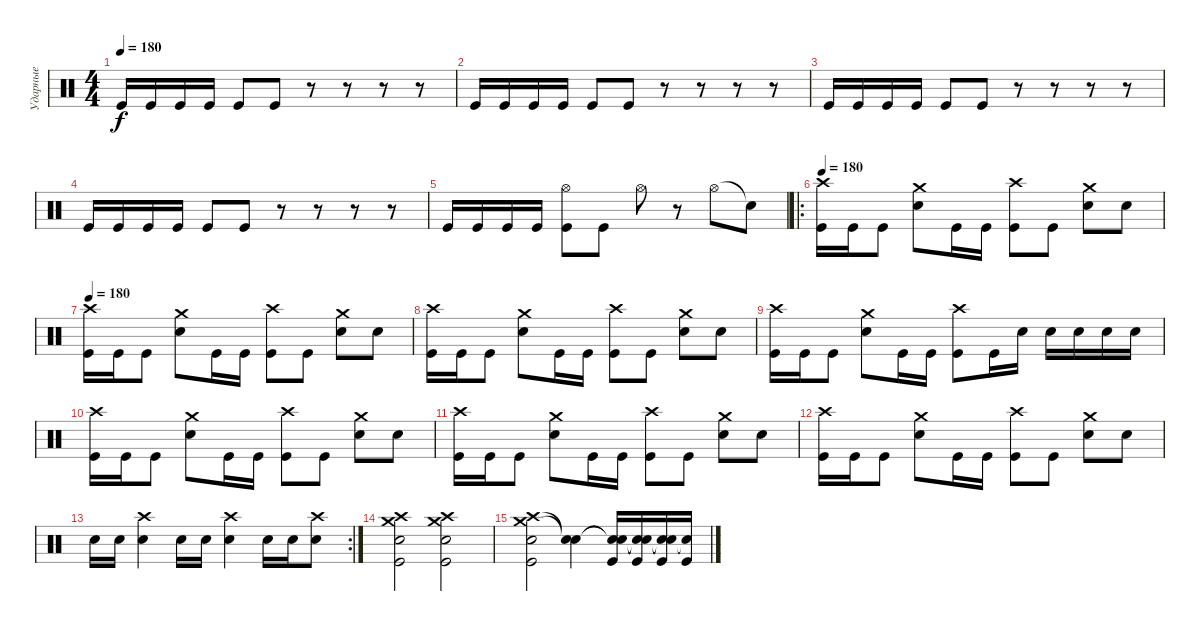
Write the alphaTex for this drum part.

\track ("Ударные" "Ударные") {instrument percussion}
\staff {score}
\articulation defaults
\ts (4 4)
\tempo 180
\clef neutral
\ks c "Kick (hit)".16{dy f} "Kick (hit)".16 "Kick (hit)".16 "Kick (hit)".16 "Kick (hit)".8 "Kick (hit)".8
r.8 r.8 r.8 r.8 |
"Kick (hit)".16 "Kick (hit)".16 "Kick (hit)".16 "Kick (hit)".16 "Kick (hit)".8 "Kick (hit)".8 r.8 r.8 r.8 r.8 |
"Kick (hit)".16 "Kick (hit)".16 "Kick (hit)".16 "Kick (hit)".16 "Kick (hit)".8 "Kick (hit)".8 r.8 r.8 r.8 r.8 |
"Kick (hit)".16 "Kick (hit)".16 "Kick (hit)".16 "Kick (hit)".16 "Kick (hit)".8 "Kick (hit)".8 r.8 r.8 r.8 r.8 |
"Kick (hit)".16 "Kick (hit)".16 "Kick (hit)".16 "Kick (hit)".16 ("Hi-Hat (open)" "Kick (hit)").8 "Kick (hit)".8 "Hi-Hat (open)".8 r.8 "Hi-Hat (open)".8 "Snare (hit)"{t}.8 |
\ro
\tempo 180
("Crash high (hit)" "Kick (hit)").16 "Kick (hit)".16 "Kick (hit)".8 ("Crash medium (hit)" "Snare (hit) 2").8 "Kick (hit)".16 "Kick (hit)".16 ("Crash high (hit)" "Kick (hit)").8 "Kick (hit)".8 ("Crash medium (hit)" "Snare (hit) 2").8 "Snare (hit) 2".8 |
\tempo 180
("Crash high (hit)" "Kick (hit)").16 "Kick (hit)".16 "Kick (hit)".8 ("Crash medium (hit)" "Snare (hit) 2").8 "Kick (hit)".16 "Kick (hit)".16 ("Crash high (hit)" "Kick (hit)").8 "Kick (hit)".8 ("Crash medium (hit)" "Snare (hit) 2").8 "Snare (hit) 2".8 |
("Crash high (hit)" "Kick (hit)").16 "Kick (hit)".16 "Kick (hit)".8 ("Crash medium (hit)" "Snare (hit) 2").8 "Kick (hit)".16 "Kick (hit)".16 ("Crash high (hit)" "Kick (hit)").8 "Kick (hit)".8 ("Crash medium (hit)" "Snare (hit) 2").8 "Snare (hit) 2".8 |
("Crash high (hit)" "Kick (hit)").16 "Kick (hit)".16 "Kick (hit)".8 ("Crash medium (hit)" "Snare (hit) 2").8 "Kick (hit)".16 "Kick (hit)".16 ("Crash high (hit)" "Kick (hit)").8 "Kick (hit)".16 "Snare (hit) 2".16 "Snare (hit) 2".16 "Snare (hit) 2".16 "Snare (hit) 2".16 "Snare (hit) 2".16 |
("Crash high (hit)" "Kick (hit)").16 "Kick (hit)".16 "Kick (hit)".8 ("Crash medium (hit)" "Snare (hit) 2").8 "Kick (hit)".16 "Kick (hit)".16 ("Crash high (hit)" "Kick (hit)").8 "Kick (hit)".8 ("Crash medium (hit)" "Snare (hit) 2").8 "Snare (hit) 2".8 |
("Crash high (hit)" "Kick (hit)").16 "Kick (hit)".16 "Kick (hit)".8 ("Crash medium (hit)" "Snare (hit) 2").8 "Kick (hit)".16 "Kick (hit)".16 ("Crash high (hit)" "Kick (hit)").8 "Kick (hit)".8 ("Crash medium (hit)" "Snare (hit) 2").8 "Snare (hit) 2".8 |
("Crash high (hit)" "Kick (hit)").16 "Kick (hit)".16 "Kick (hit)".8 ("Crash medium (hit)" "Snare (hit) 2").8 "Kick (hit)".16 "Kick (hit)".16 ("Crash high (hit)" "Kick (hit)").8 "Kick (hit)".8 ("Crash medium (hit)" "Snare (hit) 2").8 "Snare (hit) 2".8 |
\rc 2 "Snare (hit) 2".16 "Snare (hit) 2".16
("Crash high (hit)" "Snare (hit) 2").4 "Snare (hit) 2".16 "Snare (hit) 2".16 ("Crash high (hit)" "Snare (hit) 2").4 "Snare (hit) 2".16 "Snare (hit) 2".16 ("Crash high (hit)" "Snare (hit) 2").8 |
("Crash medium (hit)" "Crash high (hit)" "Kick (hit)" "Snare (hit) 2").2 ("Crash medium (hit)" "Crash high (hit)" "Kick (hit)" "Snare (hit) 2").2 |
("Crash medium (hit)" "Crash high (hit)" "Kick (hit)" "Snare (hit) 2").2 ("Snare (hit)"{t} "Snare (hit)"{t}).4 ("Snare (hit)"{t} "Snare (hit)"{t} "Kick (hit)").16 ("Snare (hit)"{t} "Snare (hit)"{t} "Kick (hit)").16 ("Snare (hit)"{t} "Snare (hit)"{t} "Kick (hit)").16 ("Snare (hit)"{t} "Kick (hit)").16
